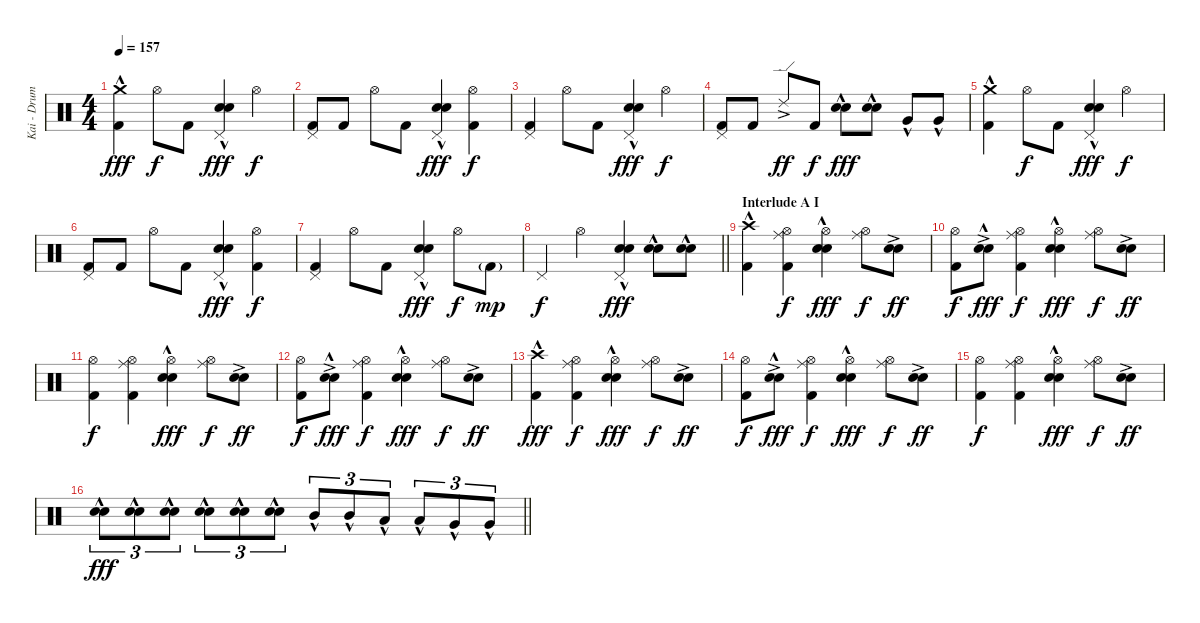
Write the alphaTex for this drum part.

\track ("Kai - Drums" "Kai - Drum") {instrument percussion}
\staff {score}
\articulation defaults
\ts (4 4)
\section ("" "")
\tempo 157
\clef neutral
\ks c
("Crash medium (hit)"{hac} "Kick (hit) 2").4{dy fff} "Hi-Hat (open)".8{dy f} "Kick (hit) 2".8 ("Pedal Hi-Hat (hit)" "Electric Snare (hit)"{hac} "Snare (hit) 2"{hac}).4{dy fff} "Hi-Hat (open)".4{dy f} |
("Pedal Hi-Hat (hit)" "Kick (hit) 2").8 "Kick (hit) 2".8 "Hi-Hat (open)".8 "Kick (hit) 2".8 ("Pedal Hi-Hat (hit)" "Electric Snare (hit)"{hac} "Snare (hit) 2"{hac}).4{dy fff} ("Hi-Hat (open)" "Kick (hit) 2").4{dy f} |
("Pedal Hi-Hat (hit)" "Kick (hit) 2").4 "Hi-Hat (open)".8 "Kick (hit) 2".8 ("Pedal Hi-Hat (hit)" "Electric Snare (hit)"{hac} "Snare (hit) 2"{hac}).4{dy fff} "Hi-Hat (open)".4{dy f} |
("Pedal Hi-Hat (hit)" "Kick (hit) 2").8 "Kick (hit) 2".8 "Ride (edge) 2"{ac}.8{dy ff} "Kick (hit) 2".8{dy f} ("Electric Snare (hit)"{hac} "Snare (hit) 2"{hac}).8{dy fff} ("Electric Snare (hit)"{hac} "Snare (hit) 2"{hac}).8 "Very Low Tom (hit)"{hac}.8 "Very Low Tom (hit)"{hac}.8 |
("Crash medium (hit)"{hac} "Kick (hit) 2").4 "Hi-Hat (open)".8{dy f} "Kick (hit) 2".8 ("Pedal Hi-Hat (hit)" "Electric Snare (hit)"{hac} "Snare (hit) 2"{hac}).4{dy fff} "Hi-Hat (open)".4{dy f} |
("Pedal Hi-Hat (hit)" "Kick (hit) 2").8 "Kick (hit) 2".8 "Hi-Hat (open)".8 "Kick (hit) 2".8 ("Pedal Hi-Hat (hit)" "Electric Snare (hit)"{hac} "Snare (hit) 2"{hac}).4{dy fff} ("Hi-Hat (open)" "Kick (hit) 2").4{dy f} |
("Pedal Hi-Hat (hit)" "Kick (hit) 2").4 "Hi-Hat (open)".8 "Kick (hit) 2".8 ("Pedal Hi-Hat (hit)" "Electric Snare (hit)"{hac} "Snare (hit) 2"{hac}).4{dy fff} "Hi-Hat (open)".8{dy f} "Kick (hit) 2"{g}.8{dy mp} |
\barLineRight lightlight "Pedal Hi-Hat (hit)".4{dy f} "Hi-Hat (open)".4
("Pedal Hi-Hat (hit)" "Electric Snare (hit)"{hac} "Snare (hit) 2"{hac}).4{dy fff} ("Electric Snare (hit)"{hac} "Snare (hit) 2"{hac}).8 ("Electric Snare (hit)"{hac} "Snare (hit) 2"{hac}).8 |
\section ("" "Interlude A I")
("Crash high (hit)"{hac} "Kick (hit) 2").4 ("Hi-Hat (open)" "Ride (middle)" "Kick (hit) 2").4{dy f} ("Hi-Hat (open)" "Electric Snare (hit)"{hac} "Snare (hit) 2"{hac}).4{dy fff} ("Hi-Hat (open)" "Ride (middle)").8{dy f} ("Electric Snare (hit)"{ac} "Snare (hit) 2").8{dy ff} |
("Hi-Hat (open)" "Kick (hit) 2").8{dy f} ("Electric Snare (hit)"{ac} "Snare (hit) 2"{hac}).8{dy fff} ("Hi-Hat (open)" "Ride (middle)" "Kick (hit) 2").4{dy f} ("Hi-Hat (open)" "Electric Snare (hit)"{hac} "Snare (hit) 2"{hac}).4{dy fff} ("Hi-Hat (open)" "Ride (middle)").8{dy f} ("Electric Snare (hit)"{ac} "Snare (hit) 2").8{dy ff} |
("Hi-Hat (open)" "Kick (hit) 2").4{dy f} ("Hi-Hat (open)" "Ride (middle)" "Kick (hit) 2").4 ("Hi-Hat (open)" "Electric Snare (hit)"{hac} "Snare (hit) 2"{hac}).4{dy fff} ("Hi-Hat (open)" "Ride (middle)").8{dy f} ("Electric Snare (hit)"{ac} "Snare (hit) 2").8{dy ff} |
("Hi-Hat (open)" "Kick (hit) 2").8{dy f} ("Electric Snare (hit)"{ac} "Snare (hit) 2"{hac}).8{dy fff} ("Hi-Hat (open)" "Ride (middle)" "Kick (hit) 2").4{dy f} ("Hi-Hat (open)" "Electric Snare (hit)"{hac} "Snare (hit) 2"{hac}).4{dy fff} ("Hi-Hat (open)" "Ride (middle)").8{dy f} ("Electric Snare (hit)"{ac} "Snare (hit) 2").8{dy ff} |
("Crash high (hit)"{hac} "Kick (hit) 2").4{dy fff} ("Hi-Hat (open)" "Ride (middle)" "Kick (hit) 2").4{dy f} ("Hi-Hat (open)" "Electric Snare (hit)"{hac} "Snare (hit) 2"{hac}).4{dy fff} ("Hi-Hat (open)" "Ride (middle)").8{dy f} ("Electric Snare (hit)"{ac} "Snare (hit) 2").8{dy ff} |
("Hi-Hat (open)" "Kick (hit) 2").8{dy f} ("Electric Snare (hit)"{ac} "Snare (hit) 2"{hac}).8{dy fff} ("Hi-Hat (open)" "Ride (middle)" "Kick (hit) 2").4{dy f} ("Hi-Hat (open)" "Electric Snare (hit)"{hac} "Snare (hit) 2"{hac}).4{dy fff} ("Hi-Hat (open)" "Ride (middle)").8{dy f} ("Electric Snare (hit)"{ac} "Snare (hit) 2").8{dy ff} |
("Hi-Hat (open)" "Kick (hit) 2").4{dy f} ("Hi-Hat (open)" "Ride (middle)" "Kick (hit) 2").4 ("Hi-Hat (open)" "Electric Snare (hit)"{hac} "Snare (hit) 2"{hac}).4{dy fff} ("Hi-Hat (open)" "Ride (middle)").8{dy f} ("Electric Snare (hit)"{ac} "Snare (hit) 2").8{dy ff} |
\barLineRight lightlight
("Electric Snare (hit)"{hac} "Snare (hit) 2"{hac}).8{tu (3 2) dy fff} ("Electric Snare (hit)"{hac} "Snare (hit) 2"{hac}).8{tu (3 2)} ("Electric Snare (hit)"{hac} "Snare (hit) 2"{hac}).8{tu (3 2)} ("Electric Snare (hit)"{hac} "Snare (hit) 2"{hac}).8{tu (3 2)} ("Electric Snare (hit)"{hac} "Snare (hit) 2"{hac}).8{tu (3 2)} ("Electric Snare (hit)"{hac} "Snare (hit) 2"{hac}).8{tu (3 2)} "Mid Tom (hit)"{hac}.8{tu (3 2)} "Mid Tom (hit)"{hac}.8{tu (3 2)} "Low Tom (hit)"{hac}.8{tu (3 2)} "Low Tom (hit)"{hac}.8{tu (3 2)} "Very Low Tom (hit)"{hac}.8{tu (3 2)} "Very Low Tom (hit)"{hac}.8{tu (3 2)}
